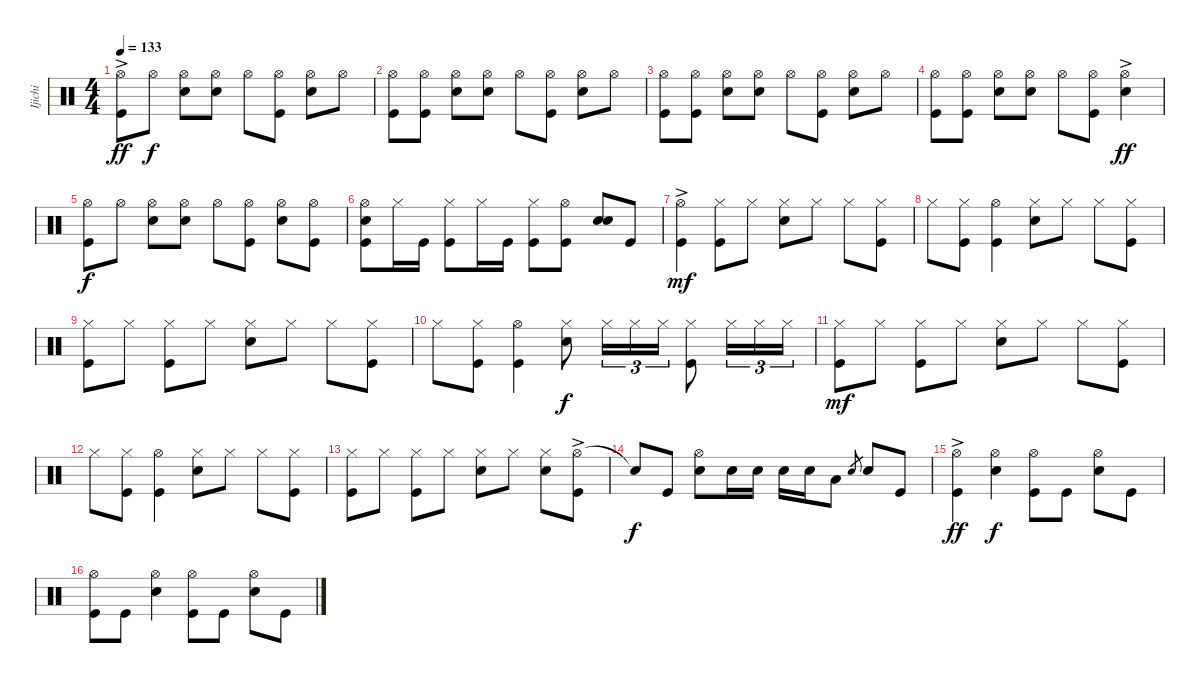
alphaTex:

\track ("Ijichi" "Ijichi") {instrument percussion}
\staff {score}
\articulation defaults
\ts (4 4)
\tempo 133
\clef neutral
\ks c
("Hi-Hat (open)"{ac} "Kick (hit)").8{dy ff} "Hi-Hat (open)".8{dy f} ("Hi-Hat (open)" "Snare (hit) 2").8 ("Hi-Hat (open)" "Snare (hit) 2").8 "Hi-Hat (open)".8 ("Hi-Hat (open)" "Kick (hit)").8 ("Hi-Hat (open)" "Snare (hit) 2").8 "Hi-Hat (open)".8 |
("Hi-Hat (open)" "Kick (hit)").8 ("Hi-Hat (open)" "Kick (hit)").8 ("Hi-Hat (open)" "Snare (hit) 2").8 ("Hi-Hat (open)" "Snare (hit) 2").8 "Hi-Hat (open)".8 ("Hi-Hat (open)" "Kick (hit)").8 ("Hi-Hat (open)" "Snare (hit) 2").8 "Hi-Hat (open)".8 |
("Hi-Hat (open)" "Kick (hit)").8 ("Hi-Hat (open)" "Kick (hit)").8 ("Hi-Hat (open)" "Snare (hit) 2").8 ("Hi-Hat (open)" "Snare (hit) 2").8 "Hi-Hat (open)".8 ("Hi-Hat (open)" "Kick (hit)").8 ("Hi-Hat (open)" "Snare (hit) 2").8 "Hi-Hat (open)".8 |
("Hi-Hat (open)" "Kick (hit)").8 ("Hi-Hat (open)" "Kick (hit)").8 ("Hi-Hat (open)" "Snare (hit) 2").8 ("Hi-Hat (open)" "Snare (hit) 2").8 "Hi-Hat (open)".8 ("Hi-Hat (open)" "Kick (hit)").8 ("Hi-Hat (open)"{ac} "Snare (hit) 2").4{dy ff} |
("Hi-Hat (open)" "Kick (hit)").8{dy f} "Hi-Hat (open)".8 ("Hi-Hat (open)" "Snare (hit) 2").8 ("Hi-Hat (open)" "Snare (hit) 2").8 "Hi-Hat (open)".8 ("Hi-Hat (open)" "Kick (hit)").8 ("Hi-Hat (open)" "Snare (hit) 2").8 ("Hi-Hat (open)" "Kick (hit)").8 |
("Hi-Hat (open)" "Snare (hit) 2" "Kick (hit)").8 "Hi-Hat (closed)".16 "Kick (hit)".16 ("Hi-Hat (closed)" "Kick (hit)").8 "Hi-Hat (closed)".16 "Kick (hit)".16 ("Hi-Hat (closed)" "Kick (hit)").8 ("Hi-Hat (open)" "Kick (hit)").8 ("Snare (hit) 2" "Snare (hit) 2").8 "Kick (hit)".8 |
("Hi-Hat (open)"{ac} "Kick (hit)").4{dy mf} ("Hi-Hat (closed)" "Kick (hit)").8 "Hi-Hat (closed)".8 ("Hi-Hat (closed)" "Snare (hit) 2").8 "Hi-Hat (closed)".8 "Hi-Hat (closed)".8 ("Hi-Hat (closed)" "Kick (hit)").8 |
"Hi-Hat (closed)".8 ("Hi-Hat (closed)" "Kick (hit)").8 ("Hi-Hat (open)" "Kick (hit)").4 ("Hi-Hat (closed)" "Snare (hit) 2").8 "Hi-Hat (closed)".8 "Hi-Hat (closed)".8 ("Hi-Hat (closed)" "Kick (hit)").8 |
("Hi-Hat (closed)" "Kick (hit)").8 "Hi-Hat (closed)".8 ("Hi-Hat (closed)" "Kick (hit)").8 "Hi-Hat (closed)".8 ("Hi-Hat (closed)" "Snare (hit) 2").8 "Hi-Hat (closed)".8 "Hi-Hat (closed)".8 ("Hi-Hat (closed)" "Kick (hit)").8 |
"Hi-Hat (closed)".8 ("Hi-Hat (closed)" "Kick (hit)").8 ("Hi-Hat (open)" "Kick (hit)").4 ("Hi-Hat (closed)" "Snare (hit) 2").8{dy f} "Hi-Hat (closed)".16{tu (3 2)} "Hi-Hat (closed)".16{tu (3 2)} "Hi-Hat (closed)".16{tu (3 2)} ("Hi-Hat (closed)" "Kick (hit)").8 "Hi-Hat (closed)".16{tu (3 2)} "Hi-Hat (closed)".16{tu (3 2)} "Hi-Hat (closed)".16{tu (3 2)} |
("Hi-Hat (closed)" "Kick (hit)").8{dy mf} "Hi-Hat (closed)".8 ("Hi-Hat (closed)" "Kick (hit)").8 "Hi-Hat (closed)".8 ("Hi-Hat (closed)" "Snare (hit) 2").8 "Hi-Hat (closed)".8 "Hi-Hat (closed)".8 ("Hi-Hat (closed)" "Kick (hit)").8 |
"Hi-Hat (closed)".8 ("Hi-Hat (closed)" "Kick (hit)").8 ("Hi-Hat (open)" "Kick (hit)").4 ("Hi-Hat (closed)" "Snare (hit) 2").8 "Hi-Hat (closed)".8 "Hi-Hat (closed)".8 ("Hi-Hat (closed)" "Kick (hit)").8 |
("Hi-Hat (closed)" "Kick (hit)").8 "Hi-Hat (closed)".8 ("Hi-Hat (closed)" "Kick (hit)").8 "Hi-Hat (closed)".8 ("Hi-Hat (closed)" "Snare (hit) 2").8 "Hi-Hat (closed)".8 ("Hi-Hat (closed)" "Snare (hit) 2").8 ("Hi-Hat (open)"{ac} "Kick (hit)").8 |
"Snare (hit)"{t}.8{dy f} "Kick (hit)".8 ("Hi-Hat (open)" "Snare (hit) 2").8 "Snare (hit) 2".16 "Snare (hit) 2".16 "Snare (hit) 2".16 "Snare (hit) 2".16 "Low Tom (hit)".8 "Snare (hit) 2".8{gr} "Snare (hit) 2".8 "Kick (hit)".8 |
("Hi-Hat (open)"{ac} "Kick (hit)").4{dy ff} ("Hi-Hat (open)" "Snare (hit) 2").4{dy f} ("Hi-Hat (open)" "Kick (hit)").8 "Kick (hit)".8 ("Hi-Hat (open)" "Snare (hit) 2").8 "Kick (hit)".8 |
("Hi-Hat (open)" "Kick (hit)").8 "Kick (hit)".8 ("Hi-Hat (open)" "Snare (hit) 2").4 ("Hi-Hat (open)" "Kick (hit)").8 "Kick (hit)".8 ("Hi-Hat (open)" "Snare (hit) 2").8 "Kick (hit)".8
